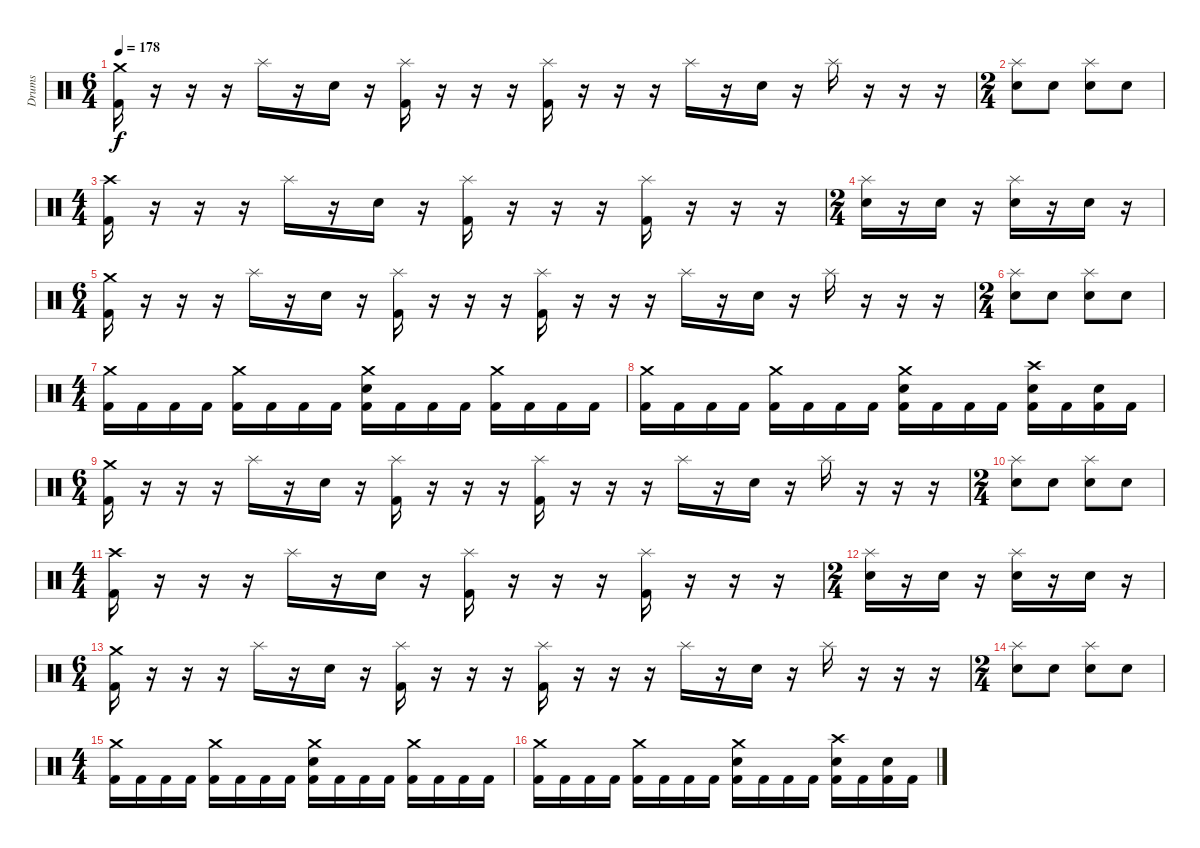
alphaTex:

\track ("Drums" "Drums") {instrument percussion}
\staff {score}
\articulation defaults
\ts (6 4)
\tempo 178
\clef neutral
\ks c
("Crash medium (hit)" "Kick (hit) 2").16{dy f} r.16 r.16 r.16 "Splash (hit)".16 r.16 "Electric Snare (hit)".16 r.16 ("Splash (hit)" "Kick (hit) 2").16 r.16 r.16 r.16 ("Splash (hit)" "Kick (hit) 2").16 r.16 r.16 r.16 "Splash (hit)".16 r.16 "Electric Snare (hit)".16 r.16 "Splash (hit)".16 r.16 r.16 r.16 |
\ts (2 4)
("Splash (hit)" "Electric Snare (hit)").8 "Electric Snare (hit)".8 ("Splash (hit)" "Electric Snare (hit)").8 "Electric Snare (hit)".8 |
\ts (4 4)
("Crash high (hit)" "Kick (hit) 2").16 r.16 r.16 r.16 "Splash (hit)".16 r.16 "Electric Snare (hit)".16 r.16 ("Splash (hit)" "Kick (hit) 2").16 r.16 r.16 r.16 ("Splash (hit)" "Kick (hit) 2").16 r.16 r.16 r.16 |
\ts (2 4)
("Splash (hit)" "Electric Snare (hit)").16 r.16 "Electric Snare (hit)".16 r.16 ("Splash (hit)" "Electric Snare (hit)").16 r.16 "Electric Snare (hit)".16 r.16 |
\ts (6 4)
("Crash medium (hit)" "Kick (hit) 2").16 r.16 r.16 r.16 "Splash (hit)".16 r.16 "Electric Snare (hit)".16 r.16 ("Splash (hit)" "Kick (hit) 2").16 r.16 r.16 r.16 ("Splash (hit)" "Kick (hit) 2").16 r.16 r.16 r.16 "Splash (hit)".16 r.16 "Electric Snare (hit)".16 r.16 "Splash (hit)".16 r.16 r.16 r.16 |
\ts (2 4)
("Splash (hit)" "Electric Snare (hit)").8 "Electric Snare (hit)".8 ("Splash (hit)" "Electric Snare (hit)").8 "Electric Snare (hit)".8 |
\ts (4 4)
("Crash medium (hit)" "Kick (hit) 2").16 "Kick (hit) 2".16 "Kick (hit) 2".16 "Kick (hit) 2".16 ("Crash medium (hit)" "Kick (hit) 2").16 "Kick (hit) 2".16 "Kick (hit) 2".16 "Kick (hit) 2".16 ("Crash medium (hit)" "Electric Snare (hit)" "Kick (hit) 2").16 "Kick (hit) 2".16 "Kick (hit) 2".16 "Kick (hit) 2".16 ("Crash medium (hit)" "Kick (hit) 2").16 "Kick (hit) 2".16 "Kick (hit) 2".16 "Kick (hit) 2".16 |
("Crash medium (hit)" "Kick (hit) 2").16 "Kick (hit) 2".16 "Kick (hit) 2".16 "Kick (hit) 2".16 ("Crash medium (hit)" "Kick (hit) 2").16 "Kick (hit) 2".16 "Kick (hit) 2".16 "Kick (hit) 2".16 ("Crash medium (hit)" "Electric Snare (hit)" "Kick (hit) 2").16 "Kick (hit) 2".16 "Kick (hit) 2".16 "Kick (hit) 2".16 ("Crash high (hit)" "Electric Snare (hit)" "Kick (hit) 2").16 "Kick (hit) 2".16 ("Electric Snare (hit)" "Kick (hit) 2").16 "Kick (hit) 2".16 |
\ts (6 4)
("Crash medium (hit)" "Kick (hit) 2").16 r.16 r.16 r.16 "Splash (hit)".16 r.16 "Electric Snare (hit)".16 r.16 ("Splash (hit)" "Kick (hit) 2").16 r.16 r.16 r.16 ("Splash (hit)" "Kick (hit) 2").16 r.16 r.16 r.16 "Splash (hit)".16 r.16 "Electric Snare (hit)".16 r.16 "Splash (hit)".16 r.16 r.16 r.16 |
\ts (2 4)
("Splash (hit)" "Electric Snare (hit)").8 "Electric Snare (hit)".8 ("Splash (hit)" "Electric Snare (hit)").8 "Electric Snare (hit)".8 |
\ts (4 4)
("Crash high (hit)" "Kick (hit) 2").16 r.16 r.16 r.16 "Splash (hit)".16 r.16 "Electric Snare (hit)".16 r.16 ("Splash (hit)" "Kick (hit) 2").16 r.16 r.16 r.16 ("Splash (hit)" "Kick (hit) 2").16 r.16 r.16 r.16 |
\ts (2 4)
("Splash (hit)" "Electric Snare (hit)").16 r.16 "Electric Snare (hit)".16 r.16 ("Splash (hit)" "Electric Snare (hit)").16 r.16 "Electric Snare (hit)".16 r.16 |
\ts (6 4)
("Crash medium (hit)" "Kick (hit) 2").16 r.16 r.16 r.16 "Splash (hit)".16 r.16 "Electric Snare (hit)".16 r.16 ("Splash (hit)" "Kick (hit) 2").16 r.16 r.16 r.16 ("Splash (hit)" "Kick (hit) 2").16 r.16 r.16 r.16 "Splash (hit)".16 r.16 "Electric Snare (hit)".16 r.16 "Splash (hit)".16 r.16 r.16 r.16 |
\ts (2 4)
("Splash (hit)" "Electric Snare (hit)").8 "Electric Snare (hit)".8 ("Splash (hit)" "Electric Snare (hit)").8 "Electric Snare (hit)".8 |
\ts (4 4)
("Crash medium (hit)" "Kick (hit) 2").16 "Kick (hit) 2".16 "Kick (hit) 2".16 "Kick (hit) 2".16 ("Crash medium (hit)" "Kick (hit) 2").16 "Kick (hit) 2".16 "Kick (hit) 2".16 "Kick (hit) 2".16 ("Crash medium (hit)" "Electric Snare (hit)" "Kick (hit) 2").16 "Kick (hit) 2".16 "Kick (hit) 2".16 "Kick (hit) 2".16 ("Crash medium (hit)" "Kick (hit) 2").16 "Kick (hit) 2".16 "Kick (hit) 2".16 "Kick (hit) 2".16 |
("Crash medium (hit)" "Kick (hit) 2").16 "Kick (hit) 2".16 "Kick (hit) 2".16 "Kick (hit) 2".16 ("Crash medium (hit)" "Kick (hit) 2").16 "Kick (hit) 2".16 "Kick (hit) 2".16 "Kick (hit) 2".16 ("Crash medium (hit)" "Electric Snare (hit)" "Kick (hit) 2").16 "Kick (hit) 2".16 "Kick (hit) 2".16 "Kick (hit) 2".16 ("Crash high (hit)" "Electric Snare (hit)" "Kick (hit) 2").16 "Kick (hit) 2".16 ("Electric Snare (hit)" "Kick (hit) 2").16 "Kick (hit) 2".16
